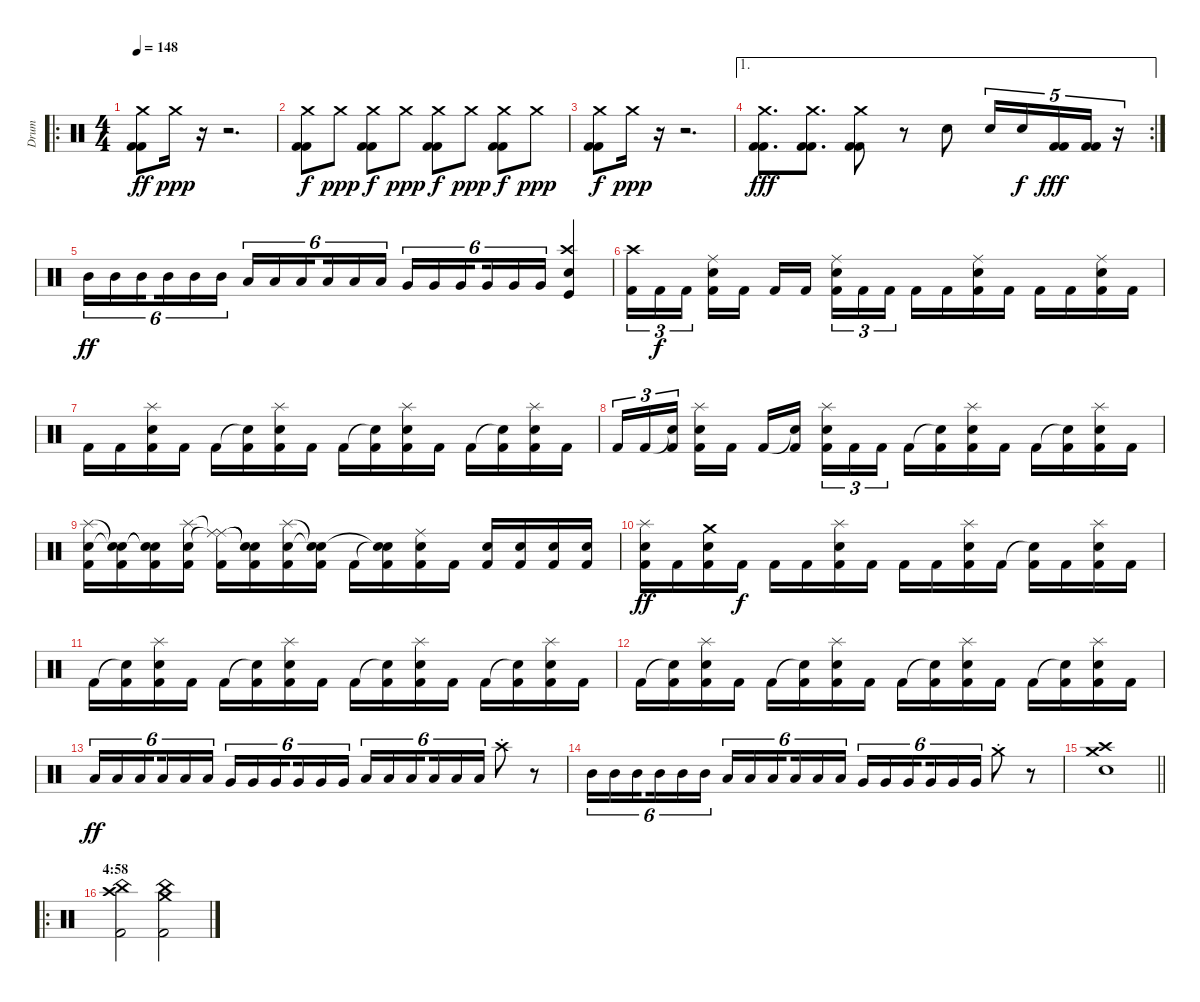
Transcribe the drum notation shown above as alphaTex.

\track ("Drum" "Drum") {instrument percussion}
\staff {score}
\articulation defaults
\ro
\ts (4 4)
\tempo 148
\clef neutral
\ks c
("Crash medium (hit)" "Kick (hit) 2" "Kick (hit) 2").8{dy ff} "Crash medium (hit)".16{dy ppp} r.16 r.2{d} |
("Crash medium (hit)" "Kick (hit) 2" "Kick (hit) 2").8{dy f} "Crash medium (hit)".8{dy ppp} ("Crash medium (hit)" "Kick (hit) 2" "Kick (hit) 2").8{dy f} "Crash medium (hit)".8{dy ppp} ("Crash medium (hit)" "Kick (hit) 2" "Kick (hit) 2").8{dy f} "Crash medium (hit)".8{dy ppp} ("Crash medium (hit)" "Kick (hit) 2" "Kick (hit) 2").8{dy f} "Crash medium (hit)".8{dy ppp} |
("Crash medium (hit)" "Kick (hit) 2" "Kick (hit) 2").8{dy f} "Crash medium (hit)".16{dy ppp} r.16 r.2{d} |
\ae 1
\rc 2
("Crash medium (hit)" "Kick (hit) 2" "Kick (hit) 2").8{d dy fff} ("Crash medium (hit)" "Kick (hit) 2" "Kick (hit) 2").8{d} ("Crash medium (hit)" "Kick (hit) 2" "Kick (hit) 2").8 r.8 "Snare (hit) 2".8 "Snare (hit) 2".16{tu (5 4)} "Snare (hit) 2".16{tu (5 4) dy f} ("Kick (hit) 2" "Kick (hit) 2").16{tu (5 4) dy fff} ("Kick (hit) 2" "Kick (hit) 2").16{tu (5 4)} r.16{tu (5 4)} |
"Mid Tom (hit)".16{tu (6 4) dy ff} "Mid Tom (hit)".16{tu (6 4)} "Mid Tom (hit)".16{tu (6 4) beam splitsecondary} "Mid Tom (hit)".16{tu (6 4)} "Mid Tom (hit)".16{tu (6 4)} "Mid Tom (hit)".16{tu (6 4)} "Low Tom (hit)".16{tu (6 4)} "Low Tom (hit)".16{tu (6 4)} "Low Tom (hit)".16{tu (6 4) beam splitsecondary} "Low Tom (hit)".16{tu (6 4)} "Low Tom (hit)".16{tu (6 4)} "Low Tom (hit)".16{tu (6 4)} "Very Low Tom (hit)".16{tu (6 4)} "Very Low Tom (hit)".16{tu (6 4)} "Very Low Tom (hit)".16{tu (6 4) beam splitsecondary} "Very Low Tom (hit)".16{tu (6 4)} "Very Low Tom (hit)".16{tu (6 4)} "Very Low Tom (hit)".16{tu (6 4)} ("Crash high (hit)" "Snare (hit) 2" "Kick (hit)").4 |
("Crash high (hit)" "Kick (hit) 2").16{tu (3 2)} "Kick (hit) 2".16{tu (3 2) dy f} "Kick (hit) 2".16{tu (3 2) beam splitsecondary} ("Ride (middle)" "Snare (hit) 2" "Kick (hit) 2").16 "Kick (hit) 2".16 "Kick (hit) 2".16 "Kick (hit) 2".16{beam splitsecondary} ("Ride (middle)" "Snare (hit) 2" "Kick (hit) 2").16{tu (3 2)} "Kick (hit) 2".16{tu (3 2)} "Kick (hit) 2".16{tu (3 2)} "Kick (hit) 2".16 "Kick (hit) 2".16 ("Ride (middle)" "Snare (hit) 2" "Kick (hit) 2").16 "Kick (hit) 2".16 "Kick (hit) 2".16 "Kick (hit) 2".16 ("Ride (middle)" "Snare (hit) 2" "Kick (hit) 2").16 "Kick (hit) 2".16 |
"Kick (hit) 2".16 "Kick (hit) 2".16 ("Splash (hit)" "Snare (hit) 2" "Kick (hit) 2").16 "Kick (hit) 2".16 "Kick (hit) 2".16 ("Snare (hit)"{t} "Kick (hit) 2").16 ("Splash (hit)" "Snare (hit) 2" "Kick (hit) 2").16 "Kick (hit) 2".16 "Kick (hit) 2".16 ("Snare (hit)"{t} "Kick (hit) 2").16 ("Splash (hit)" "Snare (hit) 2" "Kick (hit) 2").16 "Kick (hit) 2".16 "Kick (hit) 2".16 ("Snare (hit)"{t} "Kick (hit) 2").16 ("Splash (hit)" "Snare (hit) 2" "Kick (hit) 2").16 "Kick (hit) 2".16 |
"Kick (hit) 2".16{tu (3 2)} "Kick (hit) 2".16{tu (3 2)} ("Snare (hit)"{t} "Kick (hit) 2").16{tu (3 2) beam splitsecondary} ("Splash (hit)" "Snare (hit) 2" "Kick (hit) 2").16 "Kick (hit) 2".16 "Kick (hit) 2".16 ("Snare (hit)"{t} "Kick (hit) 2").16{beam splitsecondary} ("Splash (hit)" "Snare (hit) 2" "Kick (hit) 2").16{tu (3 2)} "Kick (hit) 2".16{tu (3 2)} "Kick (hit) 2".16{tu (3 2)} "Kick (hit) 2".16 ("Snare (hit)"{t} "Kick (hit) 2").16 ("Splash (hit)" "Snare (hit) 2" "Kick (hit) 2").16 "Kick (hit) 2".16 "Kick (hit) 2".16 ("Snare (hit)"{t} "Kick (hit) 2").16 ("Splash (hit)" "Snare (hit) 2" "Kick (hit) 2").16 "Kick (hit) 2".16 |
("Snare (hit) 2" "Splash (hit)" "Kick (hit) 2").16 ("Snare (hit)"{t} "Snare (hit)"{t} "Kick (hit) 2").16 ("Snare (hit)"{t} "Snare (hit)"{t} "Kick (hit) 2").16 ("Snare (hit) 2" "Splash (hit)" "Kick (hit) 2").16 ("Ride (middle)"{t} "Ride (middle)"{t} "Kick (hit) 2").16 ("Snare (hit)"{t} "Snare (hit)"{t} "Kick (hit) 2").16 ("Snare (hit) 2" "Splash (hit)" "Kick (hit) 2").16 ("Snare (hit)"{t} "Snare (hit)"{t} "Kick (hit) 2").16 "Kick (hit) 2".16 ("Snare (hit)"{t} "Snare (hit)"{t} "Kick (hit) 2").16 ("Snare (hit) 2" "Ride (middle)" "Kick (hit) 2").16 "Kick (hit) 2".16 ("Snare (hit) 2" "Kick (hit) 2").16 ("Snare (hit) 2" "Kick (hit) 2").16 ("Snare (hit) 2" "Kick (hit) 2").16 ("Snare (hit) 2" "Kick (hit) 2").16 |
("Splash (hit)" "Snare (hit) 2" "Kick (hit) 2").16{dy ff} "Kick (hit) 2".16 ("Crash medium (hit)" "Snare (hit) 2" "Kick (hit) 2").16 "Kick (hit) 2".16{dy f} "Kick (hit) 2".16 "Kick (hit) 2".16 ("Splash (hit)" "Snare (hit) 2" "Kick (hit) 2").16 "Kick (hit) 2".16 "Kick (hit) 2".16 "Kick (hit) 2".16 ("Splash (hit)" "Snare (hit) 2" "Kick (hit) 2").16 "Kick (hit) 2".16 ("Snare (hit)"{t} "Kick (hit) 2").16 "Kick (hit) 2".16 ("Splash (hit)" "Snare (hit) 2" "Kick (hit) 2").16 "Kick (hit) 2".16 |
"Kick (hit) 2".16 ("Snare (hit)"{t} "Kick (hit) 2").16 ("Splash (hit)" "Snare (hit) 2" "Kick (hit) 2").16 "Kick (hit) 2".16 "Kick (hit) 2".16 ("Snare (hit)"{t} "Kick (hit) 2").16 ("Splash (hit)" "Snare (hit) 2" "Kick (hit) 2").16 "Kick (hit) 2".16 "Kick (hit) 2".16 ("Snare (hit)"{t} "Kick (hit) 2").16 ("Splash (hit)" "Snare (hit) 2" "Kick (hit) 2").16 "Kick (hit) 2".16 "Kick (hit) 2".16 ("Snare (hit)"{t} "Kick (hit) 2").16 ("Splash (hit)" "Snare (hit) 2" "Kick (hit) 2").16 "Kick (hit) 2".16 |
"Kick (hit) 2".16 ("Snare (hit)"{t} "Kick (hit) 2").16 ("Splash (hit)" "Snare (hit) 2" "Kick (hit) 2").16 "Kick (hit) 2".16 "Kick (hit) 2".16 ("Snare (hit)"{t} "Kick (hit) 2").16 ("Splash (hit)" "Snare (hit) 2" "Kick (hit) 2").16 "Kick (hit) 2".16 "Kick (hit) 2".16 ("Snare (hit)"{t} "Kick (hit) 2").16 ("Splash (hit)" "Snare (hit) 2" "Kick (hit) 2").16 "Kick (hit) 2".16 "Kick (hit) 2".16 ("Snare (hit)"{t} "Kick (hit) 2").16 ("Splash (hit)" "Snare (hit) 2" "Kick (hit) 2").16 "Kick (hit) 2".16 |
"Low Tom (hit)".16{tu (6 4) dy ff} "Low Tom (hit)".16{tu (6 4)} "Low Tom (hit)".16{tu (6 4) beam splitsecondary} "Low Tom (hit)".16{tu (6 4)} "Low Tom (hit)".16{tu (6 4)} "Low Tom (hit)".16{tu (6 4)} "Very Low Tom (hit)".16{tu (6 4)} "Very Low Tom (hit)".16{tu (6 4)} "Very Low Tom (hit)".16{tu (6 4) beam splitsecondary} "Very Low Tom (hit)".16{tu (6 4)} "Very Low Tom (hit)".16{tu (6 4)} "Very Low Tom (hit)".16{tu (6 4)} "Low Floor Tom (hit)".16{tu (6 4)} "Low Floor Tom (hit)".16{tu (6 4)} "Low Floor Tom (hit)".16{tu (6 4) beam splitsecondary} "Low Floor Tom (hit)".16{tu (6 4)} "Low Floor Tom (hit)".16{tu (6 4)} "Low Floor Tom (hit)".16{tu (6 4)} "Crash high (hit)"{st}.8 r.8 |
"Mid Tom (hit)".16{tu (6 4)} "Mid Tom (hit)".16{tu (6 4)} "Mid Tom (hit)".16{tu (6 4) beam splitsecondary} "Mid Tom (hit)".16{tu (6 4)} "Mid Tom (hit)".16{tu (6 4)} "Mid Tom (hit)".16{tu (6 4)} "Low Tom (hit)".16{tu (6 4)} "Low Tom (hit)".16{tu (6 4)} "Low Tom (hit)".16{tu (6 4) beam splitsecondary} "Low Tom (hit)".16{tu (6 4)} "Low Tom (hit)".16{tu (6 4)} "Low Tom (hit)".16{tu (6 4)} "Very Low Tom (hit)".16{tu (6 4)} "Very Low Tom (hit)".16{tu (6 4)} "Very Low Tom (hit)".16{tu (6 4) beam splitsecondary} "Very Low Tom (hit)".16{tu (6 4)} "Very Low Tom (hit)".16{tu (6 4)} "Very Low Tom (hit)".16{tu (6 4)} "Crash medium (hit)"{st}.8 r.8 |
\barLineRight lightlight
("Crash medium (hit)" "Crash high (hit)" "Snare (hit) 2").1 |
\ro
\section ("" "4:58")
("Crash high (hit)" "China (hit)" "Kick (hit) 2").2 ("Crash medium (hit)" "China (hit)" "Kick (hit) 2").2
